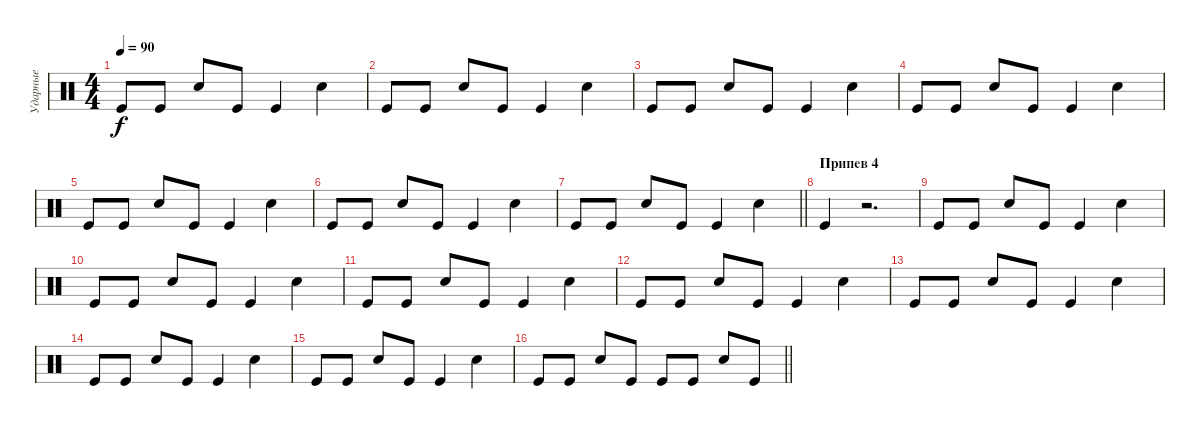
\track ("Ударные" "Ударные") {instrument percussion}
\staff
\articulation defaults
\ts (4 4)
\tempo 90
\clef neutral
\ks c "Kick (hit)".8{dy f} "Kick (hit)".8 "Snare (hit) 2".8 "Kick (hit)".8 "Kick (hit)".4 "Snare (hit) 2".4
|
"Kick (hit)".8 "Kick (hit)".8 "Snare (hit) 2".8 "Kick (hit)".8 "Kick (hit)".4 "Snare (hit) 2".4 |
"Kick (hit)".8 "Kick (hit)".8 "Snare (hit) 2".8 "Kick (hit)".8 "Kick (hit)".4 "Snare (hit) 2".4 |
"Kick (hit)".8 "Kick (hit)".8 "Snare (hit) 2".8 "Kick (hit)".8 "Kick (hit)".4 "Snare (hit) 2".4 |
"Kick (hit)".8 "Kick (hit)".8 "Snare (hit) 2".8 "Kick (hit)".8 "Kick (hit)".4 "Snare (hit) 2".4 |
"Kick (hit)".8 "Kick (hit)".8 "Snare (hit) 2".8 "Kick (hit)".8 "Kick (hit)".4 "Snare (hit) 2".4 |
\barLineRight lightlight "Kick (hit)".8 "Kick (hit)".8 "Snare (hit) 2".8 "Kick (hit)".8 "Kick (hit)".4 "Snare (hit) 2".4
|
\section ("" "Припев 4")
"Kick (hit)".4 r.2{d} |
"Kick (hit)".8 "Kick (hit)".8 "Snare (hit) 2".8 "Kick (hit)".8 "Kick (hit)".4 "Snare (hit) 2".4 |
"Kick (hit)".8 "Kick (hit)".8 "Snare (hit) 2".8 "Kick (hit)".8 "Kick (hit)".4 "Snare (hit) 2".4 |
"Kick (hit)".8 "Kick (hit)".8 "Snare (hit) 2".8 "Kick (hit)".8 "Kick (hit)".4 "Snare (hit) 2".4 |
"Kick (hit)".8 "Kick (hit)".8 "Snare (hit) 2".8 "Kick (hit)".8 "Kick (hit)".4 "Snare (hit) 2".4 |
"Kick (hit)".8 "Kick (hit)".8 "Snare (hit) 2".8 "Kick (hit)".8 "Kick (hit)".4 "Snare (hit) 2".4 |
"Kick (hit)".8 "Kick (hit)".8 "Snare (hit) 2".8 "Kick (hit)".8 "Kick (hit)".4 "Snare (hit) 2".4 |
"Kick (hit)".8 "Kick (hit)".8 "Snare (hit) 2".8 "Kick (hit)".8 "Kick (hit)".4 "Snare (hit) 2".4 |
\barLineRight lightlight "Kick (hit)".8 "Kick (hit)".8 "Snare (hit) 2".8 "Kick (hit)".8 "Kick (hit)".8 "Kick (hit)".8 "Snare (hit) 2".8 "Kick (hit)".8
